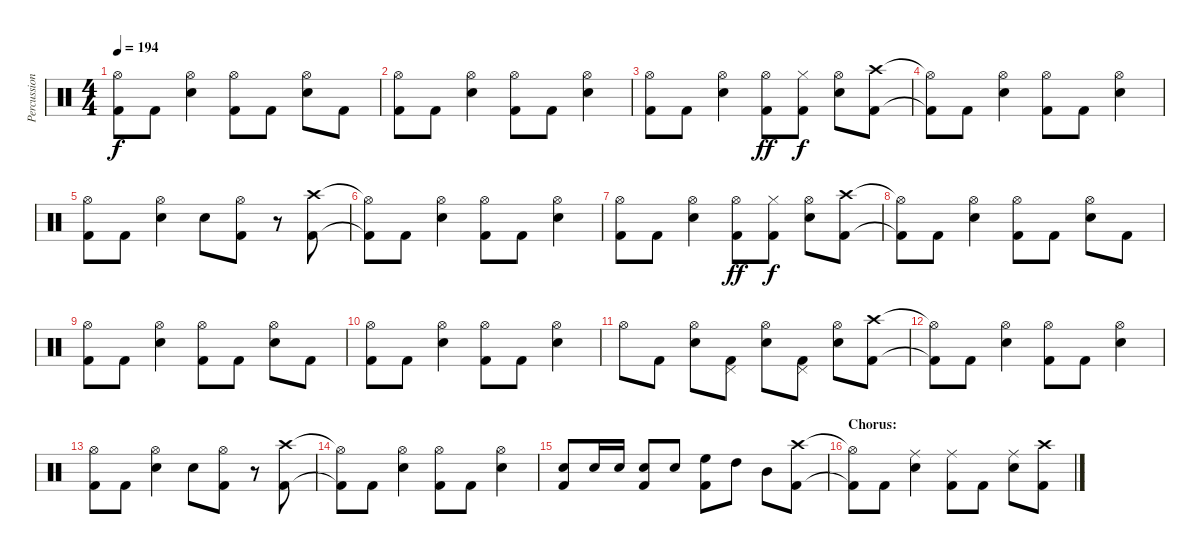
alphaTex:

\track ("Percussion" "Percussion") {instrument percussion}
\staff {score}
\articulation defaults
\ts (4 4)
\tempo 194
\clef neutral
\ks c
("Hi-Hat (open)" "Kick (hit) 2").8{dy f} "Kick (hit) 2".8 ("Hi-Hat (open)" "Electric Snare (hit)").4 ("Hi-Hat (open)" "Kick (hit) 2").8 "Kick (hit) 2".8 ("Hi-Hat (open)" "Electric Snare (hit)").8 "Kick (hit) 2".8 |
("Hi-Hat (open)" "Kick (hit) 2").8 "Kick (hit) 2".8 ("Hi-Hat (open)" "Electric Snare (hit)").4 ("Hi-Hat (open)" "Kick (hit) 2").8 "Kick (hit) 2".8 ("Hi-Hat (open)" "Electric Snare (hit)").4 |
("Hi-Hat (open)" "Kick (hit) 2").8 "Kick (hit) 2".8 ("Hi-Hat (open)" "Electric Snare (hit)").4 ("Hi-Hat (open)" "Kick (hit) 2").8{dy ff} ("Hi-Hat (closed)" "Kick (hit) 2").8{dy f} ("Hi-Hat (open)" "Electric Snare (hit)").8 ("Crash high (hit)" "Kick (hit) 2").8 |
("Hi-Hat (open)"{t} "Kick (hit) 2"{t}).8 "Kick (hit) 2".8 ("Hi-Hat (open)" "Electric Snare (hit)").4 ("Hi-Hat (open)" "Kick (hit) 2").8 "Kick (hit) 2".8 ("Hi-Hat (open)" "Electric Snare (hit)").4 |
("Hi-Hat (open)" "Kick (hit) 2").8 "Kick (hit) 2".8 ("Hi-Hat (open)" "Electric Snare (hit)").4 "Electric Snare (hit)".8 ("Hi-Hat (open)" "Kick (hit) 2").8 r.8 ("Crash high (hit)" "Kick (hit) 2").8 |
("Hi-Hat (open)"{t} "Kick (hit) 2"{t}).8 "Kick (hit) 2".8 ("Hi-Hat (open)" "Electric Snare (hit)").4 ("Hi-Hat (open)" "Kick (hit) 2").8 "Kick (hit) 2".8 ("Hi-Hat (open)" "Electric Snare (hit)").4 |
("Hi-Hat (open)" "Kick (hit) 2").8 "Kick (hit) 2".8 ("Hi-Hat (open)" "Electric Snare (hit)").4 ("Hi-Hat (open)" "Kick (hit) 2").8{dy ff} ("Hi-Hat (closed)" "Kick (hit) 2").8{dy f} ("Hi-Hat (open)" "Electric Snare (hit)").8 ("Crash high (hit)" "Kick (hit) 2").8 |
("Hi-Hat (open)"{t} "Kick (hit) 2"{t}).8 "Kick (hit) 2".8 ("Hi-Hat (open)" "Electric Snare (hit)").4 ("Hi-Hat (open)" "Kick (hit) 2").8 "Kick (hit) 2".8 ("Hi-Hat (open)" "Electric Snare (hit)").8 "Kick (hit) 2".8 |
("Hi-Hat (open)" "Kick (hit) 2").8 "Kick (hit) 2".8 ("Hi-Hat (open)" "Electric Snare (hit)").4 ("Hi-Hat (open)" "Kick (hit) 2").8 "Kick (hit) 2".8 ("Hi-Hat (open)" "Electric Snare (hit)").8 "Kick (hit) 2".8 |
("Hi-Hat (open)" "Kick (hit) 2").8 "Kick (hit) 2".8 ("Hi-Hat (open)" "Electric Snare (hit)").4 ("Hi-Hat (open)" "Kick (hit) 2").8 "Kick (hit) 2".8 ("Hi-Hat (open)" "Electric Snare (hit)").4 |
"Hi-Hat (open)".8 "Kick (hit) 2".8 ("Hi-Hat (open)" "Electric Snare (hit)").8 ("Pedal Hi-Hat (hit)" "Kick (hit) 2").8 ("Hi-Hat (open)" "Electric Snare (hit)").8 ("Pedal Hi-Hat (hit)" "Kick (hit) 2").8 ("Hi-Hat (open)" "Electric Snare (hit)").8 ("Crash high (hit)" "Kick (hit) 2").8 |
("Hi-Hat (open)"{t} "Kick (hit) 2"{t}).8 "Kick (hit) 2".8 ("Hi-Hat (open)" "Electric Snare (hit)").4 ("Hi-Hat (open)" "Kick (hit) 2").8 "Kick (hit) 2".8 ("Hi-Hat (open)" "Electric Snare (hit)").4 |
("Hi-Hat (open)" "Kick (hit) 2").8 "Kick (hit) 2".8 ("Hi-Hat (open)" "Electric Snare (hit)").4 "Electric Snare (hit)".8 ("Hi-Hat (open)" "Kick (hit) 2").8 r.8 ("Crash high (hit)" "Kick (hit) 2").8 |
("Hi-Hat (open)"{t} "Kick (hit) 2"{t}).8 "Kick (hit) 2".8 ("Hi-Hat (open)" "Electric Snare (hit)").4 ("Hi-Hat (open)" "Kick (hit) 2").8 "Kick (hit) 2".8 ("Hi-Hat (open)" "Electric Snare (hit)").4 |
("Electric Snare (hit)" "Kick (hit) 2").8 "Electric Snare (hit)".16 "Electric Snare (hit)".16 ("Electric Snare (hit)" "Kick (hit) 2").8 "Electric Snare (hit)".8 ("High Floor Tom (hit)" "Kick (hit) 2").8 "High Tom (hit)".8 "Mid Tom (hit)".8 ("Crash high (hit)" "Kick (hit) 2").8 |
\section ("" "Chorus:")
("Hi-Hat (open)"{t} "Kick (hit) 2"{t}).8 "Kick (hit) 2".8 ("Ride (middle)" "Electric Snare (hit)").4 ("Ride (middle)" "Kick (hit) 2").8 "Kick (hit) 2".8 ("Ride (middle)" "Electric Snare (hit)").8 ("Crash high (hit)" "Kick (hit) 2").8
